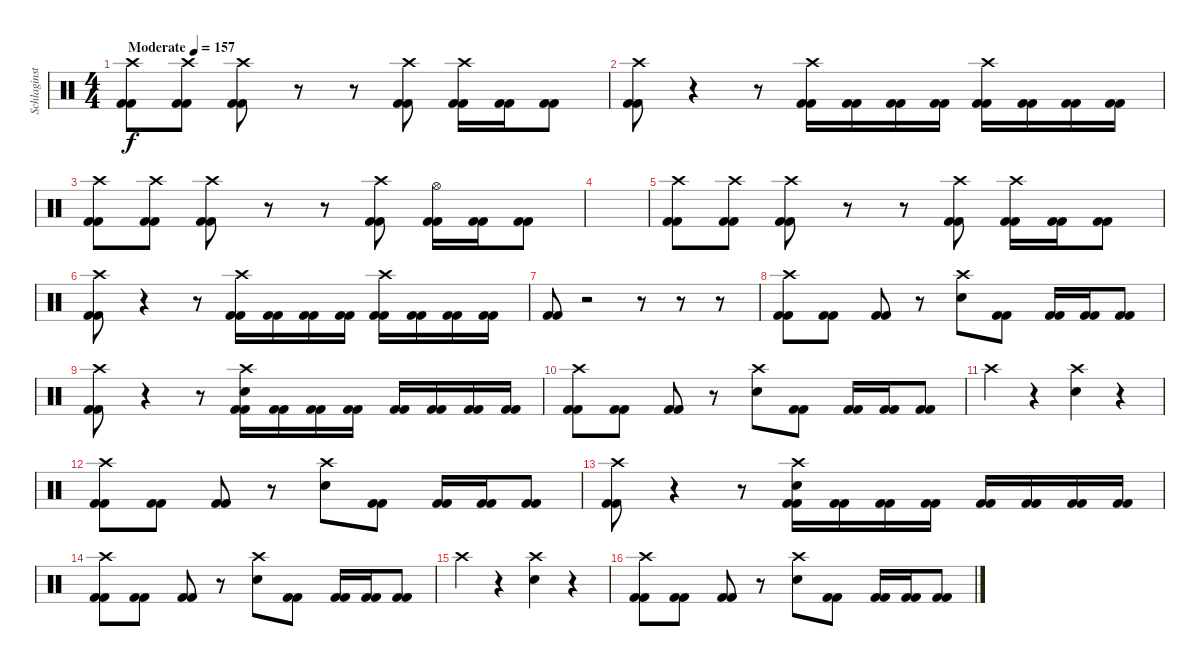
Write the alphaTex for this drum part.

\track ("Schlaginstrumente - Auswahl" "Schlaginst") {instrument percussion}
\staff {score}
\articulation defaults
\ts (4 4)
\tempo (157 "Moderate")
\clef neutral
\ks c
("Crash high (hit)" "Kick (hit) 2" "Kick (hit) 2").8{dy f} ("Crash high (hit)" "Kick (hit) 2" "Kick (hit) 2").8 ("Crash high (hit)" "Kick (hit) 2" "Kick (hit) 2").8 r.8 r.8 ("Crash high (hit)" "Kick (hit) 2" "Kick (hit) 2").8 ("Crash high (hit)" "Kick (hit) 2" "Kick (hit) 2").16 ("Kick (hit) 2" "Kick (hit) 2").16 ("Kick (hit) 2" "Kick (hit) 2").8 |
("Crash high (hit)" "Kick (hit) 2" "Kick (hit) 2").8 r.4 r.8 ("Crash high (hit)" "Kick (hit) 2" "Kick (hit) 2").16 ("Kick (hit) 2" "Kick (hit) 2").16 ("Kick (hit) 2" "Kick (hit) 2").16 ("Kick (hit) 2" "Kick (hit) 2").16 ("Crash high (hit)" "Kick (hit) 2" "Kick (hit) 2").16 ("Kick (hit) 2" "Kick (hit) 2").16 ("Kick (hit) 2" "Kick (hit) 2").16 ("Kick (hit) 2" "Kick (hit) 2").16 |
("Crash high (hit)" "Kick (hit) 2" "Kick (hit) 2").8 ("Crash high (hit)" "Kick (hit) 2" "Kick (hit) 2").8 ("Crash high (hit)" "Kick (hit) 2" "Kick (hit) 2").8 r.8 r.8 ("Crash high (hit)" "Kick (hit) 2" "Kick (hit) 2").8 ("Hi-Hat (open)" "Kick (hit) 2" "Kick (hit) 2").16 ("Kick (hit) 2" "Kick (hit) 2").16 ("Kick (hit) 2" "Kick (hit) 2").8 |
|
("Crash high (hit)" "Kick (hit) 2" "Kick (hit) 2").8 ("Crash high (hit)" "Kick (hit) 2" "Kick (hit) 2").8 ("Crash high (hit)" "Kick (hit) 2" "Kick (hit) 2").8 r.8 r.8 ("Crash high (hit)" "Kick (hit) 2" "Kick (hit) 2").8 ("Crash high (hit)" "Kick (hit) 2" "Kick (hit) 2").16 ("Kick (hit) 2" "Kick (hit) 2").16 ("Kick (hit) 2" "Kick (hit) 2").8 |
("Crash high (hit)" "Kick (hit) 2" "Kick (hit) 2").8 r.4 r.8 ("Crash high (hit)" "Kick (hit) 2" "Kick (hit) 2").16 ("Kick (hit) 2" "Kick (hit) 2").16 ("Kick (hit) 2" "Kick (hit) 2").16 ("Kick (hit) 2" "Kick (hit) 2").16 ("Crash high (hit)" "Kick (hit) 2" "Kick (hit) 2").16 ("Kick (hit) 2" "Kick (hit) 2").16 ("Kick (hit) 2" "Kick (hit) 2").16 ("Kick (hit) 2" "Kick (hit) 2").16 |
("Kick (hit) 2" "Kick (hit) 2").8 r.2 r.8 r.8 r.8 |
("Crash high (hit)" "Kick (hit) 2" "Kick (hit) 2").8 ("Kick (hit) 2" "Kick (hit) 2").8 ("Kick (hit) 2" "Kick (hit) 2").8 r.8 ("Crash high (hit)" "Electric Snare (hit)").8 ("Kick (hit) 2" "Kick (hit) 2").8 ("Kick (hit) 2" "Kick (hit) 2").16 ("Kick (hit) 2" "Kick (hit) 2").16 ("Kick (hit) 2" "Kick (hit) 2").8 |
("Crash high (hit)" "Kick (hit) 2" "Kick (hit) 2").8 r.4 r.8 ("Crash high (hit)" "Electric Snare (hit)" "Kick (hit) 2" "Kick (hit) 2").16 ("Kick (hit) 2" "Kick (hit) 2").16 ("Kick (hit) 2" "Kick (hit) 2").16 ("Kick (hit) 2" "Kick (hit) 2").16 ("Kick (hit) 2" "Kick (hit) 2").16 ("Kick (hit) 2" "Kick (hit) 2").16 ("Kick (hit) 2" "Kick (hit) 2").16 ("Kick (hit) 2" "Kick (hit) 2").16 |
("Crash high (hit)" "Kick (hit) 2" "Kick (hit) 2").8 ("Kick (hit) 2" "Kick (hit) 2").8 ("Kick (hit) 2" "Kick (hit) 2").8 r.8 ("Crash high (hit)" "Electric Snare (hit)").8 ("Kick (hit) 2" "Kick (hit) 2").8 ("Kick (hit) 2" "Kick (hit) 2").16 ("Kick (hit) 2" "Kick (hit) 2").16 ("Kick (hit) 2" "Kick (hit) 2").8 |
"Crash high (hit)".4 r.4 ("Crash high (hit)" "Electric Snare (hit)").4 r.4 |
("Crash high (hit)" "Kick (hit) 2" "Kick (hit) 2").8 ("Kick (hit) 2" "Kick (hit) 2").8 ("Kick (hit) 2" "Kick (hit) 2").8 r.8 ("Crash high (hit)" "Electric Snare (hit)").8 ("Kick (hit) 2" "Kick (hit) 2").8 ("Kick (hit) 2" "Kick (hit) 2").16 ("Kick (hit) 2" "Kick (hit) 2").16 ("Kick (hit) 2" "Kick (hit) 2").8 |
("Crash high (hit)" "Kick (hit) 2" "Kick (hit) 2").8 r.4 r.8 ("Crash high (hit)" "Electric Snare (hit)" "Kick (hit) 2" "Kick (hit) 2").16 ("Kick (hit) 2" "Kick (hit) 2").16 ("Kick (hit) 2" "Kick (hit) 2").16 ("Kick (hit) 2" "Kick (hit) 2").16 ("Kick (hit) 2" "Kick (hit) 2").16 ("Kick (hit) 2" "Kick (hit) 2").16 ("Kick (hit) 2" "Kick (hit) 2").16 ("Kick (hit) 2" "Kick (hit) 2").16 |
("Crash high (hit)" "Kick (hit) 2" "Kick (hit) 2").8 ("Kick (hit) 2" "Kick (hit) 2").8 ("Kick (hit) 2" "Kick (hit) 2").8 r.8 ("Crash high (hit)" "Electric Snare (hit)").8 ("Kick (hit) 2" "Kick (hit) 2").8 ("Kick (hit) 2" "Kick (hit) 2").16 ("Kick (hit) 2" "Kick (hit) 2").16 ("Kick (hit) 2" "Kick (hit) 2").8 |
"Crash high (hit)".4 r.4 ("Crash high (hit)" "Electric Snare (hit)").4 r.4 |
("Crash high (hit)" "Kick (hit) 2" "Kick (hit) 2").8 ("Kick (hit) 2" "Kick (hit) 2").8 ("Kick (hit) 2" "Kick (hit) 2").8 r.8 ("Crash high (hit)" "Electric Snare (hit)").8 ("Kick (hit) 2" "Kick (hit) 2").8 ("Kick (hit) 2" "Kick (hit) 2").16 ("Kick (hit) 2" "Kick (hit) 2").16 ("Kick (hit) 2" "Kick (hit) 2").8
